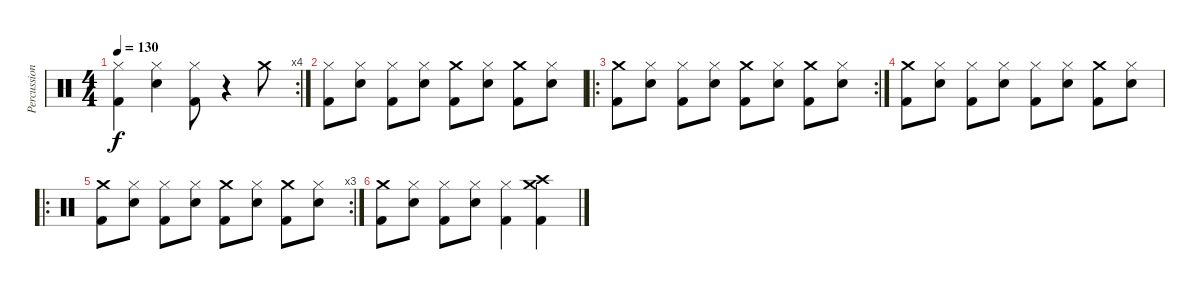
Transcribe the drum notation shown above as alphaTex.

\track ("Percussion" "Percussion") {instrument percussion}
\staff {score}
\articulation defaults
\rc 4
\ts (4 4)
\tempo 130
\clef neutral
\ks c
("Hi-Hat (closed)" "Kick (hit) 2").4{dy f} ("Hi-Hat (closed)" "Snare (hit) 2").4 ("Hi-Hat (closed)" "Kick (hit) 2").8 r.4 "Crash medium (hit)".8 |
("Hi-Hat (closed)" "Kick (hit) 2").8 ("Hi-Hat (closed)" "Snare (hit) 2").8 ("Hi-Hat (closed)" "Kick (hit) 2").8 ("Hi-Hat (closed)" "Snare (hit) 2").8 ("Crash medium (hit)" "Kick (hit) 2").8 ("Hi-Hat (closed)" "Snare (hit) 2").8 ("Crash medium (hit)" "Kick (hit) 2").8 ("Hi-Hat (closed)" "Snare (hit) 2").8 |
\ro
\rc 2
("Crash medium (hit)" "Kick (hit) 2").8 ("Hi-Hat (closed)" "Snare (hit) 2").8 ("Hi-Hat (closed)" "Kick (hit) 2").8 ("Hi-Hat (closed)" "Snare (hit) 2").8 ("Crash medium (hit)" "Kick (hit) 2").8 ("Hi-Hat (closed)" "Snare (hit) 2").8 ("Crash medium (hit)" "Kick (hit) 2").8 ("Hi-Hat (closed)" "Snare (hit) 2").8 |
("Crash medium (hit)" "Kick (hit) 2").8 ("Hi-Hat (closed)" "Snare (hit) 2").8 ("Hi-Hat (closed)" "Kick (hit) 2").8 ("Hi-Hat (closed)" "Snare (hit) 2").8 ("Hi-Hat (closed)" "Kick (hit) 2").8 ("Hi-Hat (closed)" "Snare (hit) 2").8 ("Crash medium (hit)" "Kick (hit) 2").8 ("Hi-Hat (closed)" "Snare (hit) 2").8 |
\ro
\rc 3
("Crash medium (hit)" "Kick (hit) 2").8 ("Hi-Hat (closed)" "Snare (hit) 2").8 ("Hi-Hat (closed)" "Kick (hit) 2").8 ("Hi-Hat (closed)" "Snare (hit) 2").8 ("Crash medium (hit)" "Kick (hit) 2").8 ("Hi-Hat (closed)" "Snare (hit) 2").8 ("Crash medium (hit)" "Kick (hit) 2").8 ("Hi-Hat (closed)" "Snare (hit) 2").8 |
("Crash medium (hit)" "Kick (hit) 2").8 ("Hi-Hat (closed)" "Snare (hit) 2").8 ("Hi-Hat (closed)" "Kick (hit) 2").8 ("Hi-Hat (closed)" "Snare (hit) 2").8 ("Hi-Hat (closed)" "Kick (hit) 2").4 ("Crash high (hit)" "Crash medium (hit)" "Kick (hit) 2").4
